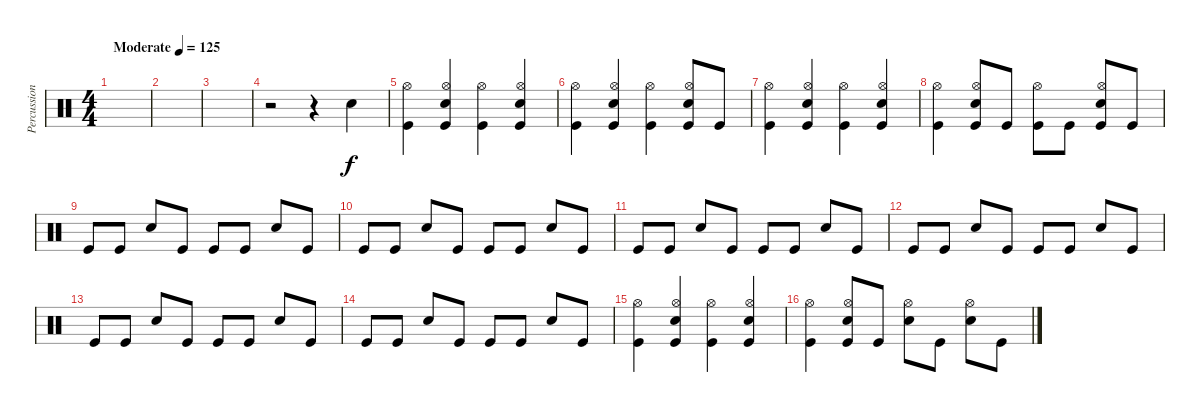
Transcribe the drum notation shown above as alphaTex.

\track ("Percussion" "Percussion") {instrument percussion}
\staff {score}
\articulation defaults
\ts (4 4)
\tempo (125 "Moderate")
\clef neutral
\ks c
|
|
|
r.2 r.4 "Electric Snare (hit)".4 |
("Hi-Hat (open)" "Kick (hit)").4 ("Hi-Hat (open)" "Electric Snare (hit)" "Kick (hit)").4 ("Hi-Hat (open)" "Kick (hit)").4 ("Hi-Hat (open)" "Electric Snare (hit)" "Kick (hit)").4 |
("Hi-Hat (open)" "Kick (hit)").4 ("Hi-Hat (open)" "Electric Snare (hit)" "Kick (hit)").4 ("Hi-Hat (open)" "Kick (hit)").4 ("Hi-Hat (open)" "Electric Snare (hit)" "Kick (hit)").8 "Kick (hit)".8 |
("Hi-Hat (open)" "Kick (hit)").4 ("Hi-Hat (open)" "Electric Snare (hit)" "Kick (hit)").4 ("Hi-Hat (open)" "Kick (hit)").4 ("Hi-Hat (open)" "Electric Snare (hit)" "Kick (hit)").4 |
("Hi-Hat (open)" "Kick (hit)").4 ("Hi-Hat (open)" "Electric Snare (hit)" "Kick (hit)").8 "Kick (hit)".8 ("Hi-Hat (open)" "Kick (hit)").8 "Kick (hit)".8 ("Hi-Hat (open)" "Electric Snare (hit)" "Kick (hit)").8 "Kick (hit)".8 |
"Kick (hit)".8 "Kick (hit)".8 "Electric Snare (hit)".8 "Kick (hit)".8 "Kick (hit)".8 "Kick (hit)".8 "Electric Snare (hit)".8 "Kick (hit)".8 |
"Kick (hit)".8 "Kick (hit)".8 "Electric Snare (hit)".8 "Kick (hit)".8 "Kick (hit)".8 "Kick (hit)".8 "Electric Snare (hit)".8 "Kick (hit)".8 |
"Kick (hit)".8 "Kick (hit)".8 "Electric Snare (hit)".8 "Kick (hit)".8 "Kick (hit)".8 "Kick (hit)".8 "Electric Snare (hit)".8 "Kick (hit)".8 |
"Kick (hit)".8 "Kick (hit)".8 "Electric Snare (hit)".8 "Kick (hit)".8 "Kick (hit)".8 "Kick (hit)".8 "Electric Snare (hit)".8 "Kick (hit)".8 |
"Kick (hit)".8 "Kick (hit)".8 "Electric Snare (hit)".8 "Kick (hit)".8 "Kick (hit)".8 "Kick (hit)".8 "Electric Snare (hit)".8 "Kick (hit)".8 |
"Kick (hit)".8 "Kick (hit)".8 "Electric Snare (hit)".8 "Kick (hit)".8 "Kick (hit)".8 "Kick (hit)".8 "Electric Snare (hit)".8 "Kick (hit)".8 |
("Hi-Hat (open)" "Kick (hit)").4 ("Hi-Hat (open)" "Electric Snare (hit)" "Kick (hit)").4 ("Hi-Hat (open)" "Kick (hit)").4 ("Hi-Hat (open)" "Electric Snare (hit)" "Kick (hit)").4 |
("Hi-Hat (open)" "Kick (hit)").4 ("Hi-Hat (open)" "Electric Snare (hit)" "Kick (hit)").8 "Kick (hit)".8 ("Hi-Hat (open)" "Electric Snare (hit)").8 "Kick (hit)".8 ("Hi-Hat (open)" "Electric Snare (hit)").8 "Kick (hit)".8
